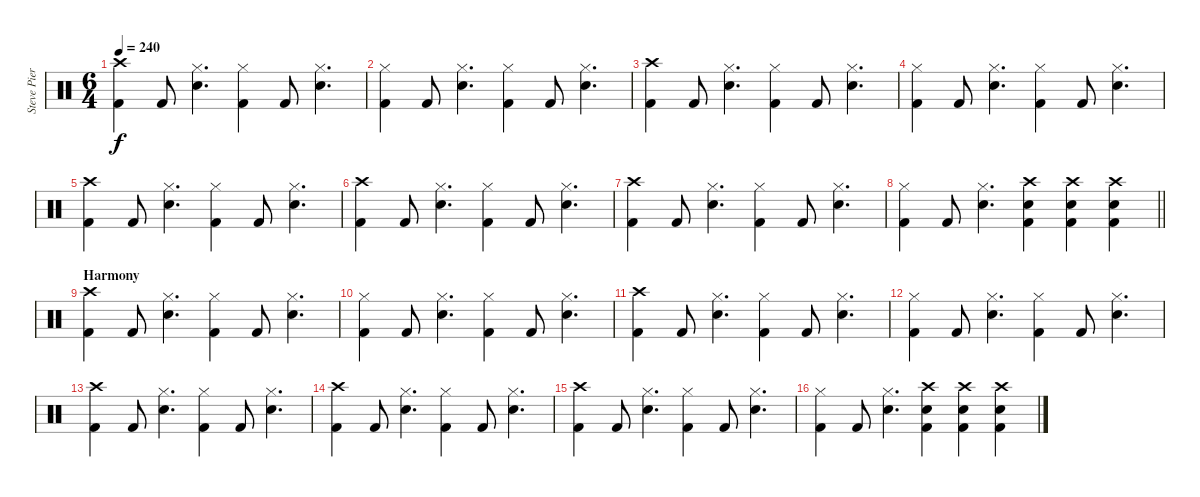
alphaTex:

\track ("Steve Pierce" "Steve Pier") {instrument percussion}
\staff {score}
\articulation defaults
\ts (6 4)
\tempo 240
\clef neutral
\ks c
("Crash high (hit)" "Kick (hit) 2").4{dy f} "Kick (hit) 2".8 ("Hi-Hat (closed)" "Snare (hit) 2").4{d} ("Hi-Hat (closed)" "Kick (hit) 2").4 "Kick (hit) 2".8 ("Hi-Hat (closed)" "Snare (hit) 2").4{d} |
("Hi-Hat (closed)" "Kick (hit) 2").4 "Kick (hit) 2".8 ("Hi-Hat (closed)" "Snare (hit) 2").4{d} ("Hi-Hat (closed)" "Kick (hit) 2").4 "Kick (hit) 2".8 ("Hi-Hat (closed)" "Snare (hit) 2").4{d} |
("Crash high (hit)" "Kick (hit) 2").4 "Kick (hit) 2".8 ("Hi-Hat (closed)" "Snare (hit) 2").4{d} ("Hi-Hat (closed)" "Kick (hit) 2").4 "Kick (hit) 2".8 ("Hi-Hat (closed)" "Snare (hit) 2").4{d} |
("Hi-Hat (closed)" "Kick (hit) 2").4 "Kick (hit) 2".8 ("Hi-Hat (closed)" "Snare (hit) 2").4{d} ("Hi-Hat (closed)" "Kick (hit) 2").4 "Kick (hit) 2".8 ("Hi-Hat (closed)" "Snare (hit) 2").4{d} |
("Crash high (hit)" "Kick (hit) 2").4 "Kick (hit) 2".8 ("Hi-Hat (closed)" "Snare (hit) 2").4{d} ("Hi-Hat (closed)" "Kick (hit) 2").4 "Kick (hit) 2".8 ("Hi-Hat (closed)" "Snare (hit) 2").4{d} |
("Crash high (hit)" "Kick (hit) 2").4 "Kick (hit) 2".8 ("Hi-Hat (closed)" "Snare (hit) 2").4{d} ("Hi-Hat (closed)" "Kick (hit) 2").4 "Kick (hit) 2".8 ("Hi-Hat (closed)" "Snare (hit) 2").4{d} |
("Crash high (hit)" "Kick (hit) 2").4 "Kick (hit) 2".8 ("Hi-Hat (closed)" "Snare (hit) 2").4{d} ("Hi-Hat (closed)" "Kick (hit) 2").4 "Kick (hit) 2".8 ("Hi-Hat (closed)" "Snare (hit) 2").4{d} |
\barLineRight lightlight
("Hi-Hat (closed)" "Kick (hit) 2").4 "Kick (hit) 2".8 ("Hi-Hat (closed)" "Snare (hit) 2").4{d} ("Crash high (hit)" "Snare (hit) 2" "Kick (hit) 2").4 ("Crash high (hit)" "Snare (hit) 2" "Kick (hit) 2").4 ("Crash high (hit)" "Snare (hit) 2" "Kick (hit) 2").4 |
\section ("" "Harmony")
("Crash high (hit)" "Kick (hit) 2").4 "Kick (hit) 2".8 ("Hi-Hat (closed)" "Snare (hit) 2").4{d} ("Hi-Hat (closed)" "Kick (hit) 2").4 "Kick (hit) 2".8 ("Hi-Hat (closed)" "Snare (hit) 2").4{d} |
("Hi-Hat (closed)" "Kick (hit) 2").4 "Kick (hit) 2".8 ("Hi-Hat (closed)" "Snare (hit) 2").4{d} ("Hi-Hat (closed)" "Kick (hit) 2").4 "Kick (hit) 2".8 ("Hi-Hat (closed)" "Snare (hit) 2").4{d} |
("Crash high (hit)" "Kick (hit) 2").4 "Kick (hit) 2".8 ("Hi-Hat (closed)" "Snare (hit) 2").4{d} ("Hi-Hat (closed)" "Kick (hit) 2").4 "Kick (hit) 2".8 ("Hi-Hat (closed)" "Snare (hit) 2").4{d} |
("Hi-Hat (closed)" "Kick (hit) 2").4 "Kick (hit) 2".8 ("Hi-Hat (closed)" "Snare (hit) 2").4{d} ("Hi-Hat (closed)" "Kick (hit) 2").4 "Kick (hit) 2".8 ("Hi-Hat (closed)" "Snare (hit) 2").4{d} |
("Crash high (hit)" "Kick (hit) 2").4 "Kick (hit) 2".8 ("Hi-Hat (closed)" "Snare (hit) 2").4{d} ("Hi-Hat (closed)" "Kick (hit) 2").4 "Kick (hit) 2".8 ("Hi-Hat (closed)" "Snare (hit) 2").4{d} |
("Crash high (hit)" "Kick (hit) 2").4 "Kick (hit) 2".8 ("Hi-Hat (closed)" "Snare (hit) 2").4{d} ("Hi-Hat (closed)" "Kick (hit) 2").4 "Kick (hit) 2".8 ("Hi-Hat (closed)" "Snare (hit) 2").4{d} |
("Crash high (hit)" "Kick (hit) 2").4 "Kick (hit) 2".8 ("Hi-Hat (closed)" "Snare (hit) 2").4{d} ("Hi-Hat (closed)" "Kick (hit) 2").4 "Kick (hit) 2".8 ("Hi-Hat (closed)" "Snare (hit) 2").4{d} |
("Hi-Hat (closed)" "Kick (hit) 2").4 "Kick (hit) 2".8 ("Hi-Hat (closed)" "Snare (hit) 2").4{d} ("Crash high (hit)" "Snare (hit) 2" "Kick (hit) 2").4 ("Crash high (hit)" "Snare (hit) 2" "Kick (hit) 2").4 ("Crash high (hit)" "Snare (hit) 2" "Kick (hit) 2").4
